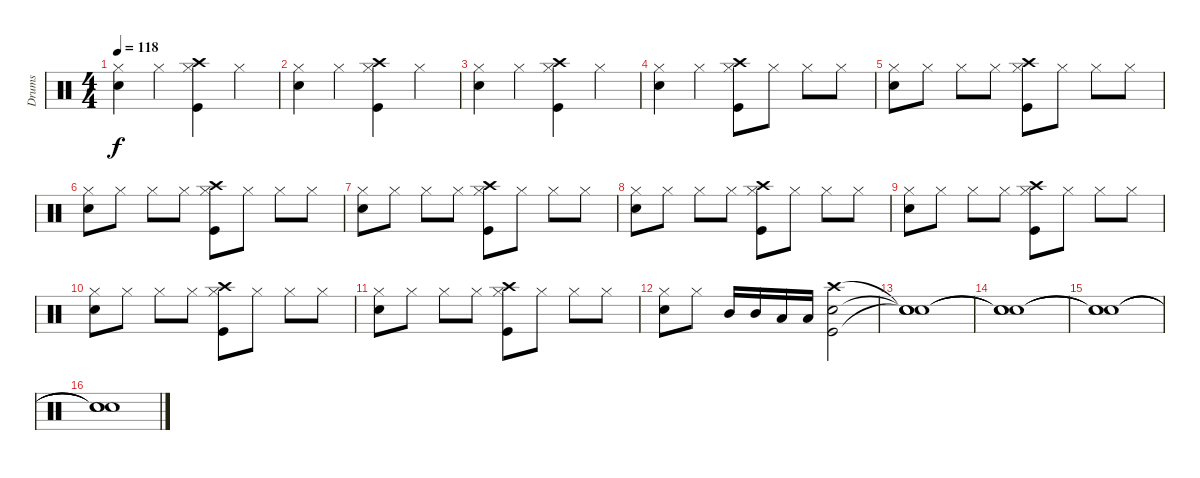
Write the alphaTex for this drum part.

\track ("Drums" "Drums") {instrument percussion}
\staff {score}
\articulation defaults
\ts (4 4)
\tempo 118
\clef neutral
\ks c
("Snare (hit) 2" "Hi-Hat (closed)").4{dy f} "Hi-Hat (closed)".4 ("Kick (hit)" "Hi-Hat (closed)" "Crash high (hit)").4 "Hi-Hat (closed)".4 |
("Snare (hit) 2" "Hi-Hat (closed)").4 "Hi-Hat (closed)".4 ("Kick (hit)" "Hi-Hat (closed)" "Crash high (hit)").4 "Hi-Hat (closed)".4 |
("Snare (hit) 2" "Hi-Hat (closed)").4 "Hi-Hat (closed)".4 ("Kick (hit)" "Hi-Hat (closed)" "Crash high (hit)").4 "Hi-Hat (closed)".4 |
("Snare (hit) 2" "Hi-Hat (closed)").4 "Hi-Hat (closed)".4 ("Kick (hit)" "Hi-Hat (closed)" "Crash high (hit)").8 "Hi-Hat (closed)".8 "Hi-Hat (closed)".8 "Hi-Hat (closed)".8 |
("Snare (hit) 2" "Hi-Hat (closed)").8 "Hi-Hat (closed)".8 "Hi-Hat (closed)".8 "Hi-Hat (closed)".8 ("Kick (hit)" "Hi-Hat (closed)" "Crash high (hit)").8 "Hi-Hat (closed)".8 "Hi-Hat (closed)".8 "Hi-Hat (closed)".8 |
("Snare (hit) 2" "Hi-Hat (closed)").8 "Hi-Hat (closed)".8 "Hi-Hat (closed)".8 "Hi-Hat (closed)".8 ("Kick (hit)" "Hi-Hat (closed)" "Crash high (hit)").8 "Hi-Hat (closed)".8 "Hi-Hat (closed)".8 "Hi-Hat (closed)".8 |
("Snare (hit) 2" "Hi-Hat (closed)").8 "Hi-Hat (closed)".8 "Hi-Hat (closed)".8 "Hi-Hat (closed)".8 ("Kick (hit)" "Hi-Hat (closed)" "Crash high (hit)").8 "Hi-Hat (closed)".8 "Hi-Hat (closed)".8 "Hi-Hat (closed)".8 |
("Snare (hit) 2" "Hi-Hat (closed)").8 "Hi-Hat (closed)".8 "Hi-Hat (closed)".8 "Hi-Hat (closed)".8 ("Kick (hit)" "Hi-Hat (closed)" "Crash high (hit)").8 "Hi-Hat (closed)".8 "Hi-Hat (closed)".8 "Hi-Hat (closed)".8 |
("Snare (hit) 2" "Hi-Hat (closed)").8 "Hi-Hat (closed)".8 "Hi-Hat (closed)".8 "Hi-Hat (closed)".8 ("Kick (hit)" "Hi-Hat (closed)" "Crash high (hit)").8 "Hi-Hat (closed)".8 "Hi-Hat (closed)".8 "Hi-Hat (closed)".8 |
("Snare (hit) 2" "Hi-Hat (closed)").8 "Hi-Hat (closed)".8 "Hi-Hat (closed)".8 "Hi-Hat (closed)".8 ("Kick (hit)" "Hi-Hat (closed)" "Crash high (hit)").8 "Hi-Hat (closed)".8 "Hi-Hat (closed)".8 "Hi-Hat (closed)".8 |
("Snare (hit) 2" "Hi-Hat (closed)").8 "Hi-Hat (closed)".8 "Hi-Hat (closed)".8 "Hi-Hat (closed)".8 ("Kick (hit)" "Hi-Hat (closed)" "Crash high (hit)").8 "Hi-Hat (closed)".8 "Hi-Hat (closed)".8 "Hi-Hat (closed)".8 |
("Snare (hit) 2" "Hi-Hat (closed)").8 "Hi-Hat (closed)".8 "Mid Tom (hit)".16 "Mid Tom (hit)".16 "Low Tom (hit)".16 "Low Tom (hit)".16 ("Kick (hit)" "Snare (hit) 2" "Crash high (hit)").2 |
("Snare (hit)"{t} "Snare (hit)"{t} "Snare (hit)"{t}).1 |
("Snare (hit)"{t} "Snare (hit)"{t} "Snare (hit)"{t}).1 |
("Snare (hit)"{t} "Snare (hit)"{t} "Snare (hit)"{t}).1 |
("Snare (hit)"{t} "Snare (hit)"{t} "Snare (hit)"{t}).1
